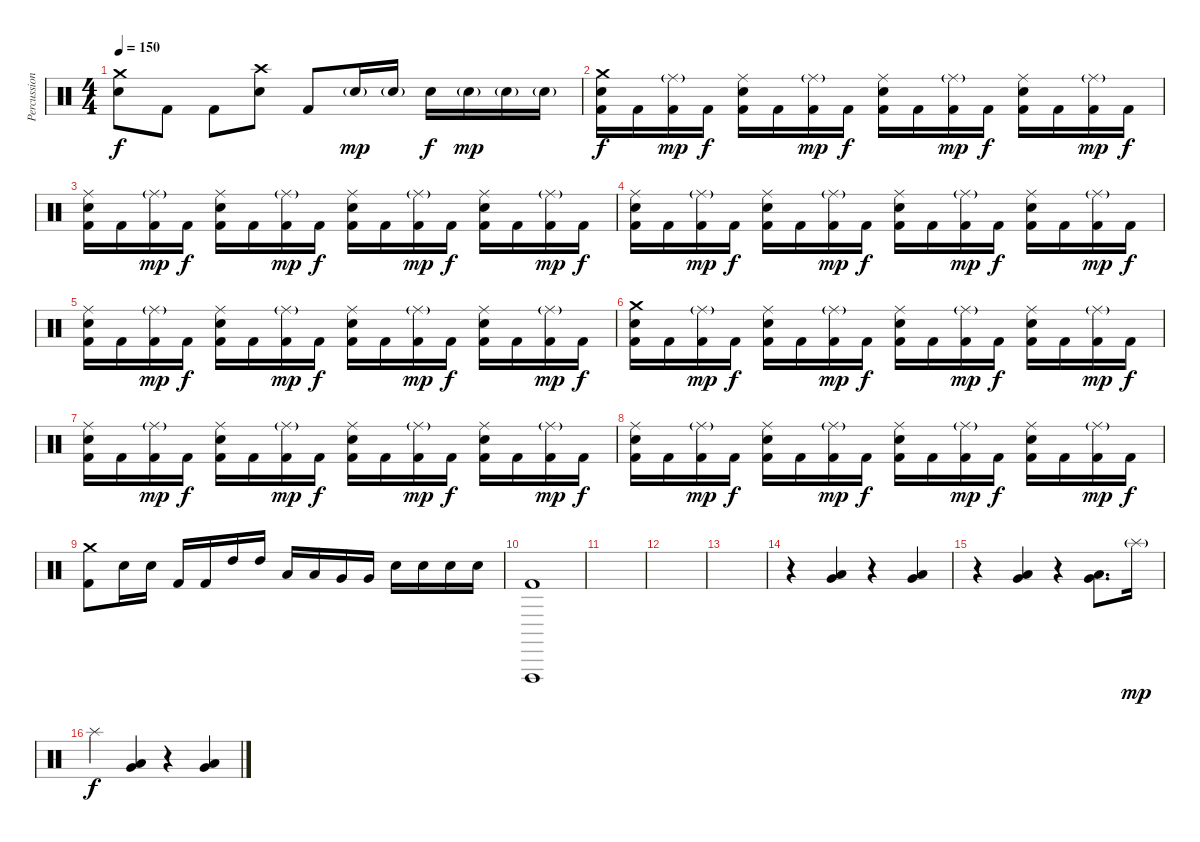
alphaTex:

\track ("Percussions" "Percussion") {instrument percussion}
\staff {score}
\articulation defaults
\ts (4 4)
\tempo 150
\clef neutral
\ks c
("Crash medium (hit)" "Snare (hit) 2").8{dy f} "Kick (hit) 2".8 "Kick (hit) 2".8 ("Crash high (hit)" "Snare (hit) 2").8 "Kick (hit) 2".8 "Snare (hit) 2"{g}.16{dy mp} "Snare (hit) 2"{g}.16 "Snare (hit) 2".16{dy f} "Snare (hit) 2"{g}.16{dy mp} "Snare (hit) 2"{g}.16 "Snare (hit) 2"{g}.16 |
("Crash medium (hit)" "Snare (hit) 2" "Kick (hit) 2").16{dy f} "Kick (hit) 2".16 ("Ride (middle)"{g} "Kick (hit) 2").16{dy mp} "Kick (hit) 2".16{dy f} ("Ride (middle)" "Snare (hit) 2" "Kick (hit) 2").16 "Kick (hit) 2".16 ("Ride (middle)"{g} "Kick (hit) 2").16{dy mp} "Kick (hit) 2".16{dy f} ("Ride (middle)" "Snare (hit) 2" "Kick (hit) 2").16 "Kick (hit) 2".16 ("Ride (middle)"{g} "Kick (hit) 2").16{dy mp} "Kick (hit) 2".16{dy f} ("Ride (middle)" "Snare (hit) 2" "Kick (hit) 2").16 "Kick (hit) 2".16 ("Ride (middle)"{g} "Kick (hit) 2").16{dy mp} "Kick (hit) 2".16{dy f} |
("Ride (middle)" "Snare (hit) 2" "Kick (hit) 2").16 "Kick (hit) 2".16 ("Ride (middle)"{g} "Kick (hit) 2").16{dy mp} "Kick (hit) 2".16{dy f} ("Ride (middle)" "Snare (hit) 2" "Kick (hit) 2").16 "Kick (hit) 2".16 ("Ride (middle)"{g} "Kick (hit) 2").16{dy mp} "Kick (hit) 2".16{dy f} ("Ride (middle)" "Snare (hit) 2" "Kick (hit) 2").16 "Kick (hit) 2".16 ("Ride (middle)"{g} "Kick (hit) 2").16{dy mp} "Kick (hit) 2".16{dy f} ("Ride (middle)" "Snare (hit) 2" "Kick (hit) 2").16 "Kick (hit) 2".16 ("Ride (middle)"{g} "Kick (hit) 2").16{dy mp} "Kick (hit) 2".16{dy f} |
("Ride (middle)" "Snare (hit) 2" "Kick (hit) 2").16 "Kick (hit) 2".16 ("Ride (middle)"{g} "Kick (hit) 2").16{dy mp} "Kick (hit) 2".16{dy f} ("Ride (middle)" "Snare (hit) 2" "Kick (hit) 2").16 "Kick (hit) 2".16 ("Ride (middle)"{g} "Kick (hit) 2").16{dy mp} "Kick (hit) 2".16{dy f} ("Ride (middle)" "Snare (hit) 2" "Kick (hit) 2").16 "Kick (hit) 2".16 ("Ride (middle)"{g} "Kick (hit) 2").16{dy mp} "Kick (hit) 2".16{dy f} ("Ride (middle)" "Snare (hit) 2" "Kick (hit) 2").16 "Kick (hit) 2".16 ("Ride (middle)"{g} "Kick (hit) 2").16{dy mp} "Kick (hit) 2".16{dy f} |
("Ride (middle)" "Snare (hit) 2" "Kick (hit) 2").16 "Kick (hit) 2".16 ("Ride (middle)"{g} "Kick (hit) 2").16{dy mp} "Kick (hit) 2".16{dy f} ("Ride (middle)" "Snare (hit) 2" "Kick (hit) 2").16 "Kick (hit) 2".16 ("Ride (middle)"{g} "Kick (hit) 2").16{dy mp} "Kick (hit) 2".16{dy f} ("Ride (middle)" "Snare (hit) 2" "Kick (hit) 2").16 "Kick (hit) 2".16 ("Ride (middle)"{g} "Kick (hit) 2").16{dy mp} "Kick (hit) 2".16{dy f} ("Ride (middle)" "Snare (hit) 2" "Kick (hit) 2").16 "Kick (hit) 2".16 ("Ride (middle)"{g} "Kick (hit) 2").16{dy mp} "Kick (hit) 2".16{dy f} |
("Crash medium (hit)" "Snare (hit) 2" "Kick (hit) 2").16 "Kick (hit) 2".16 ("Ride (middle)"{g} "Kick (hit) 2").16{dy mp} "Kick (hit) 2".16{dy f} ("Ride (middle)" "Snare (hit) 2" "Kick (hit) 2").16 "Kick (hit) 2".16 ("Ride (middle)"{g} "Kick (hit) 2").16{dy mp} "Kick (hit) 2".16{dy f} ("Ride (middle)" "Snare (hit) 2" "Kick (hit) 2").16 "Kick (hit) 2".16 ("Ride (middle)"{g} "Kick (hit) 2").16{dy mp} "Kick (hit) 2".16{dy f} ("Ride (middle)" "Snare (hit) 2" "Kick (hit) 2").16 "Kick (hit) 2".16 ("Ride (middle)"{g} "Kick (hit) 2").16{dy mp} "Kick (hit) 2".16{dy f} |
("Ride (middle)" "Snare (hit) 2" "Kick (hit) 2").16 "Kick (hit) 2".16 ("Ride (middle)"{g} "Kick (hit) 2").16{dy mp} "Kick (hit) 2".16{dy f} ("Ride (middle)" "Snare (hit) 2" "Kick (hit) 2").16 "Kick (hit) 2".16 ("Ride (middle)"{g} "Kick (hit) 2").16{dy mp} "Kick (hit) 2".16{dy f} ("Ride (middle)" "Snare (hit) 2" "Kick (hit) 2").16 "Kick (hit) 2".16 ("Ride (middle)"{g} "Kick (hit) 2").16{dy mp} "Kick (hit) 2".16{dy f} ("Ride (middle)" "Snare (hit) 2" "Kick (hit) 2").16 "Kick (hit) 2".16 ("Ride (middle)"{g} "Kick (hit) 2").16{dy mp} "Kick (hit) 2".16{dy f} |
("Ride (middle)" "Snare (hit) 2" "Kick (hit) 2").16 "Kick (hit) 2".16 ("Ride (middle)"{g} "Kick (hit) 2").16{dy mp} "Kick (hit) 2".16{dy f} ("Ride (middle)" "Snare (hit) 2" "Kick (hit) 2").16 "Kick (hit) 2".16 ("Ride (middle)"{g} "Kick (hit) 2").16{dy mp} "Kick (hit) 2".16{dy f} ("Ride (middle)" "Snare (hit) 2" "Kick (hit) 2").16 "Kick (hit) 2".16 ("Ride (middle)"{g} "Kick (hit) 2").16{dy mp} "Kick (hit) 2".16{dy f} ("Ride (middle)" "Snare (hit) 2" "Kick (hit) 2").16 "Kick (hit) 2".16 ("Ride (middle)"{g} "Kick (hit) 2").16{dy mp} "Kick (hit) 2".16{dy f} |
("Crash medium (hit)" "Kick (hit) 2").8 "Snare (hit) 2".16 "Snare (hit) 2".16 "Kick (hit) 2".16 "Kick (hit) 2".16 "High Tom (hit)".16 "High Tom (hit)".16 "Low Tom (hit)".16 "Low Tom (hit)".16 "Very Low Tom (hit)".16 "Very Low Tom (hit)".16 "Snare (hit) 2".16 "Snare (hit) 2".16 "Snare (hit) 2".16 "Snare (hit) 2".16 |
("Vibraslap (hit)" "Kick (hit) 2").1 |
|
|
|
r.4 ("Low Floor Tom (hit)" "Very Low Tom (hit)").4 r.4 ("Low Floor Tom (hit)" "Very Low Tom (hit)").4 |
r.4 ("Low Floor Tom (hit)" "Very Low Tom (hit)").4 r.4 ("Low Floor Tom (hit)" "Very Low Tom (hit)").8{d} "Splash (hit)"{g}.16{dy mp} |
"Splash (hit)".4{dy f} ("Low Floor Tom (hit)" "Very Low Tom (hit)").4 r.4 ("Low Floor Tom (hit)" "Very Low Tom (hit)").4
